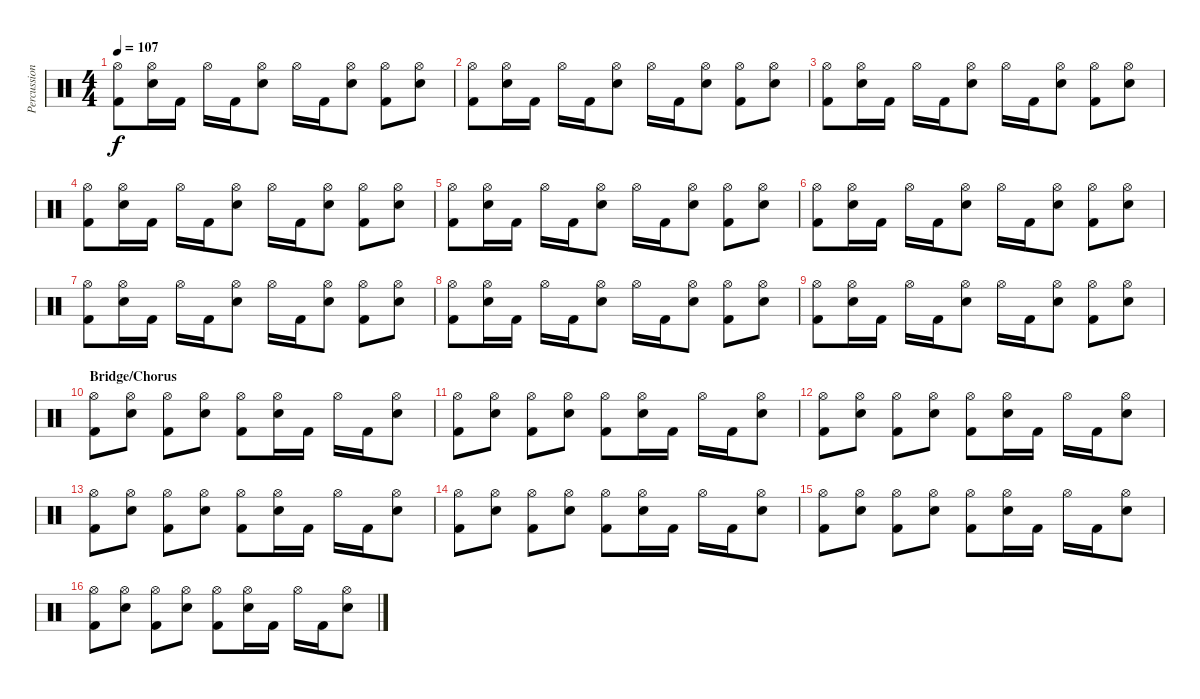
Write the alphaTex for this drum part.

\track ("Percussion" "Percussion") {instrument percussion}
\staff {score}
\articulation defaults
\ts (4 4)
\tempo 107
\clef neutral
\ks c
("Hi-Hat (open)" "Kick (hit) 2").8{dy f} ("Hi-Hat (open)" "Electric Snare (hit)").16 "Kick (hit) 2".16 "Hi-Hat (open)".16 "Kick (hit) 2".16 ("Hi-Hat (open)" "Electric Snare (hit)").8 "Hi-Hat (open)".16 "Kick (hit) 2".16 ("Hi-Hat (open)" "Electric Snare (hit)").8 ("Hi-Hat (open)" "Kick (hit) 2").8 ("Hi-Hat (open)" "Electric Snare (hit)").8 |
("Hi-Hat (open)" "Kick (hit) 2").8 ("Hi-Hat (open)" "Electric Snare (hit)").16 "Kick (hit) 2".16 "Hi-Hat (open)".16 "Kick (hit) 2".16 ("Hi-Hat (open)" "Electric Snare (hit)").8 "Hi-Hat (open)".16 "Kick (hit) 2".16 ("Hi-Hat (open)" "Electric Snare (hit)").8 ("Hi-Hat (open)" "Kick (hit) 2").8 ("Hi-Hat (open)" "Electric Snare (hit)").8 |
("Hi-Hat (open)" "Kick (hit) 2").8 ("Hi-Hat (open)" "Electric Snare (hit)").16 "Kick (hit) 2".16 "Hi-Hat (open)".16 "Kick (hit) 2".16 ("Hi-Hat (open)" "Electric Snare (hit)").8 "Hi-Hat (open)".16 "Kick (hit) 2".16 ("Hi-Hat (open)" "Electric Snare (hit)").8 ("Hi-Hat (open)" "Kick (hit) 2").8 ("Hi-Hat (open)" "Electric Snare (hit)").8 |
("Hi-Hat (open)" "Kick (hit) 2").8 ("Hi-Hat (open)" "Electric Snare (hit)").16 "Kick (hit) 2".16 "Hi-Hat (open)".16 "Kick (hit) 2".16 ("Hi-Hat (open)" "Electric Snare (hit)").8 "Hi-Hat (open)".16 "Kick (hit) 2".16 ("Hi-Hat (open)" "Electric Snare (hit)").8 ("Hi-Hat (open)" "Kick (hit) 2").8 ("Hi-Hat (open)" "Electric Snare (hit)").8 |
("Hi-Hat (open)" "Kick (hit) 2").8 ("Hi-Hat (open)" "Electric Snare (hit)").16 "Kick (hit) 2".16 "Hi-Hat (open)".16 "Kick (hit) 2".16 ("Hi-Hat (open)" "Electric Snare (hit)").8 "Hi-Hat (open)".16 "Kick (hit) 2".16 ("Hi-Hat (open)" "Electric Snare (hit)").8 ("Hi-Hat (open)" "Kick (hit) 2").8 ("Hi-Hat (open)" "Electric Snare (hit)").8 |
("Hi-Hat (open)" "Kick (hit) 2").8 ("Hi-Hat (open)" "Electric Snare (hit)").16 "Kick (hit) 2".16 "Hi-Hat (open)".16 "Kick (hit) 2".16 ("Hi-Hat (open)" "Electric Snare (hit)").8 "Hi-Hat (open)".16 "Kick (hit) 2".16 ("Hi-Hat (open)" "Electric Snare (hit)").8 ("Hi-Hat (open)" "Kick (hit) 2").8 ("Hi-Hat (open)" "Electric Snare (hit)").8 |
("Hi-Hat (open)" "Kick (hit) 2").8 ("Hi-Hat (open)" "Electric Snare (hit)").16 "Kick (hit) 2".16 "Hi-Hat (open)".16 "Kick (hit) 2".16 ("Hi-Hat (open)" "Electric Snare (hit)").8 "Hi-Hat (open)".16 "Kick (hit) 2".16 ("Hi-Hat (open)" "Electric Snare (hit)").8 ("Hi-Hat (open)" "Kick (hit) 2").8 ("Hi-Hat (open)" "Electric Snare (hit)").8 |
("Hi-Hat (open)" "Kick (hit) 2").8 ("Hi-Hat (open)" "Electric Snare (hit)").16 "Kick (hit) 2".16 "Hi-Hat (open)".16 "Kick (hit) 2".16 ("Hi-Hat (open)" "Electric Snare (hit)").8 "Hi-Hat (open)".16 "Kick (hit) 2".16 ("Hi-Hat (open)" "Electric Snare (hit)").8 ("Hi-Hat (open)" "Kick (hit) 2").8 ("Hi-Hat (open)" "Electric Snare (hit)").8 |
("Hi-Hat (open)" "Kick (hit) 2").8 ("Hi-Hat (open)" "Electric Snare (hit)").16 "Kick (hit) 2".16 "Hi-Hat (open)".16 "Kick (hit) 2".16 ("Hi-Hat (open)" "Electric Snare (hit)").8 "Hi-Hat (open)".16 "Kick (hit) 2".16 ("Hi-Hat (open)" "Electric Snare (hit)").8 ("Hi-Hat (open)" "Kick (hit) 2").8 ("Hi-Hat (open)" "Electric Snare (hit)").8 |
\section ("" "Bridge/Chorus")
("Hi-Hat (open)" "Kick (hit) 2").8 ("Hi-Hat (open)" "Electric Snare (hit)").8 ("Hi-Hat (open)" "Kick (hit) 2").8 ("Hi-Hat (open)" "Electric Snare (hit)").8 ("Hi-Hat (open)" "Kick (hit) 2").8 ("Hi-Hat (open)" "Electric Snare (hit)").16 "Kick (hit) 2".16 "Hi-Hat (open)".16 "Kick (hit) 2".16 ("Hi-Hat (open)" "Electric Snare (hit)").8 |
("Hi-Hat (open)" "Kick (hit) 2").8 ("Hi-Hat (open)" "Electric Snare (hit)").8 ("Hi-Hat (open)" "Kick (hit) 2").8 ("Hi-Hat (open)" "Electric Snare (hit)").8 ("Hi-Hat (open)" "Kick (hit) 2").8 ("Hi-Hat (open)" "Electric Snare (hit)").16 "Kick (hit) 2".16 "Hi-Hat (open)".16 "Kick (hit) 2".16 ("Hi-Hat (open)" "Electric Snare (hit)").8 |
("Hi-Hat (open)" "Kick (hit) 2").8 ("Hi-Hat (open)" "Electric Snare (hit)").8 ("Hi-Hat (open)" "Kick (hit) 2").8 ("Hi-Hat (open)" "Electric Snare (hit)").8 ("Hi-Hat (open)" "Kick (hit) 2").8 ("Hi-Hat (open)" "Electric Snare (hit)").16 "Kick (hit) 2".16 "Hi-Hat (open)".16 "Kick (hit) 2".16 ("Hi-Hat (open)" "Electric Snare (hit)").8 |
("Hi-Hat (open)" "Kick (hit) 2").8 ("Hi-Hat (open)" "Electric Snare (hit)").8 ("Hi-Hat (open)" "Kick (hit) 2").8 ("Hi-Hat (open)" "Electric Snare (hit)").8 ("Hi-Hat (open)" "Kick (hit) 2").8 ("Hi-Hat (open)" "Electric Snare (hit)").16 "Kick (hit) 2".16 "Hi-Hat (open)".16 "Kick (hit) 2".16 ("Hi-Hat (open)" "Electric Snare (hit)").8 |
("Hi-Hat (open)" "Kick (hit) 2").8 ("Hi-Hat (open)" "Electric Snare (hit)").8 ("Hi-Hat (open)" "Kick (hit) 2").8 ("Hi-Hat (open)" "Electric Snare (hit)").8 ("Hi-Hat (open)" "Kick (hit) 2").8 ("Hi-Hat (open)" "Electric Snare (hit)").16 "Kick (hit) 2".16 "Hi-Hat (open)".16 "Kick (hit) 2".16 ("Hi-Hat (open)" "Electric Snare (hit)").8 |
("Hi-Hat (open)" "Kick (hit) 2").8 ("Hi-Hat (open)" "Electric Snare (hit)").8 ("Hi-Hat (open)" "Kick (hit) 2").8 ("Hi-Hat (open)" "Electric Snare (hit)").8 ("Hi-Hat (open)" "Kick (hit) 2").8 ("Hi-Hat (open)" "Electric Snare (hit)").16 "Kick (hit) 2".16 "Hi-Hat (open)".16 "Kick (hit) 2".16 ("Hi-Hat (open)" "Electric Snare (hit)").8 |
("Hi-Hat (open)" "Kick (hit) 2").8 ("Hi-Hat (open)" "Electric Snare (hit)").8 ("Hi-Hat (open)" "Kick (hit) 2").8 ("Hi-Hat (open)" "Electric Snare (hit)").8 ("Hi-Hat (open)" "Kick (hit) 2").8 ("Hi-Hat (open)" "Electric Snare (hit)").16 "Kick (hit) 2".16 "Hi-Hat (open)".16 "Kick (hit) 2".16 ("Hi-Hat (open)" "Electric Snare (hit)").8
